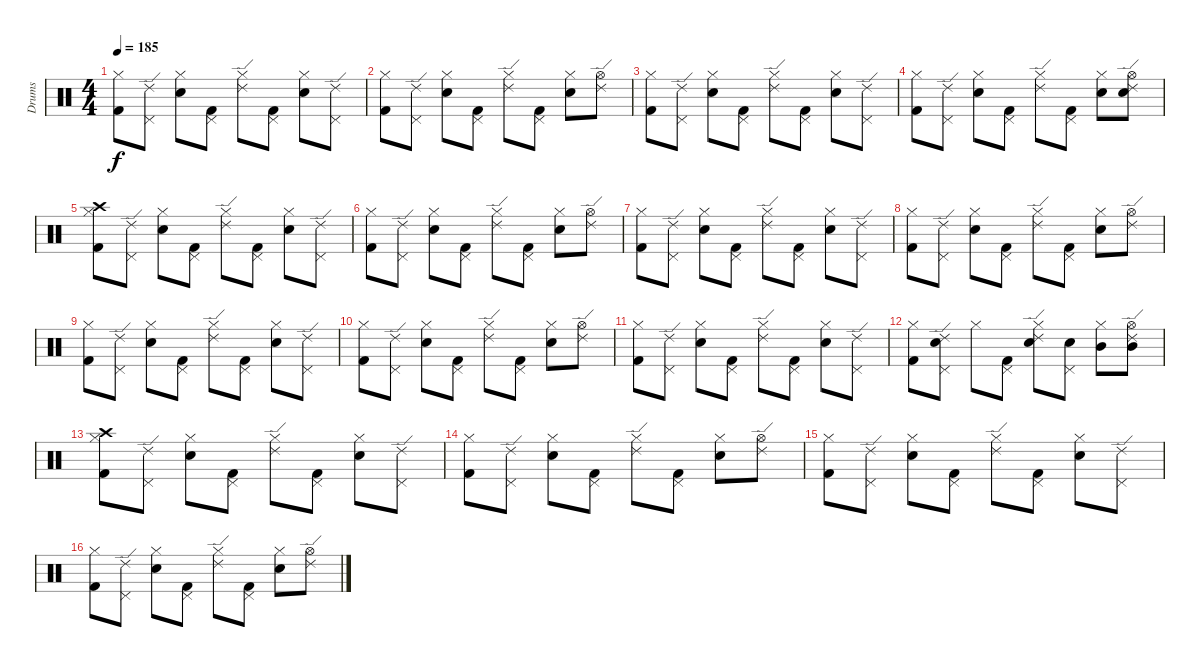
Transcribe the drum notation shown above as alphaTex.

\track ("Drums" "Drums") {instrument percussion}
\staff {score}
\articulation defaults
\ts (4 4)
\tempo 185
\clef neutral
\ks c
("Kick (hit) 2" "Hi-Hat (closed)").8{dy f} ("Ride (edge) 2" "Pedal Hi-Hat (hit)").8 ("Electric Snare (hit)" "Hi-Hat (closed)").8 ("Kick (hit) 2" "Pedal Hi-Hat (hit)").8 ("Ride (edge) 2" "Hi-Hat (closed)").8 ("Kick (hit) 2" "Pedal Hi-Hat (hit)").8 ("Electric Snare (hit)" "Hi-Hat (closed)").8 ("Ride (edge) 2" "Pedal Hi-Hat (hit)").8 |
("Kick (hit) 2" "Hi-Hat (closed)").8 ("Ride (edge) 2" "Pedal Hi-Hat (hit)").8 ("Electric Snare (hit)" "Hi-Hat (closed)").8 ("Kick (hit) 2" "Pedal Hi-Hat (hit)").8 ("Ride (edge) 2" "Hi-Hat (closed)").8 ("Kick (hit) 2" "Pedal Hi-Hat (hit)").8 ("Electric Snare (hit)" "Hi-Hat (closed)").8 ("Ride (edge) 2" "Hi-Hat (open)").8 |
("Kick (hit) 2" "Hi-Hat (closed)").8 ("Ride (edge) 2" "Pedal Hi-Hat (hit)").8 ("Electric Snare (hit)" "Hi-Hat (closed)").8 ("Kick (hit) 2" "Pedal Hi-Hat (hit)").8 ("Ride (edge) 2" "Hi-Hat (closed)").8 ("Kick (hit) 2" "Pedal Hi-Hat (hit)").8 ("Electric Snare (hit)" "Hi-Hat (closed)").8 ("Ride (edge) 2" "Pedal Hi-Hat (hit)").8 |
("Kick (hit) 2" "Hi-Hat (closed)").8 ("Ride (edge) 2" "Pedal Hi-Hat (hit)").8 ("Electric Snare (hit)" "Hi-Hat (closed)").8 ("Kick (hit) 2" "Pedal Hi-Hat (hit)").8 ("Ride (edge) 2" "Hi-Hat (closed)").8 ("Kick (hit) 2" "Pedal Hi-Hat (hit)").8 ("Electric Snare (hit)" "Hi-Hat (closed)").8 ("Electric Snare (hit)" "Ride (edge) 2" "Hi-Hat (open)").8 |
("Kick (hit) 2" "Crash high (hit)" "Hi-Hat (closed)").8 ("Ride (edge) 2" "Pedal Hi-Hat (hit)").8 ("Electric Snare (hit)" "Hi-Hat (closed)").8 ("Kick (hit) 2" "Pedal Hi-Hat (hit)").8 ("Ride (edge) 2" "Hi-Hat (closed)").8 ("Kick (hit) 2" "Pedal Hi-Hat (hit)").8 ("Electric Snare (hit)" "Hi-Hat (closed)").8 ("Ride (edge) 2" "Pedal Hi-Hat (hit)").8 |
("Kick (hit) 2" "Hi-Hat (closed)").8 ("Ride (edge) 2" "Pedal Hi-Hat (hit)").8 ("Electric Snare (hit)" "Hi-Hat (closed)").8 ("Kick (hit) 2" "Pedal Hi-Hat (hit)").8 ("Ride (edge) 2" "Hi-Hat (closed)").8 ("Kick (hit) 2" "Pedal Hi-Hat (hit)").8 ("Electric Snare (hit)" "Hi-Hat (closed)").8 ("Ride (edge) 2" "Hi-Hat (open)").8 |
("Kick (hit) 2" "Hi-Hat (closed)").8 ("Ride (edge) 2" "Pedal Hi-Hat (hit)").8 ("Electric Snare (hit)" "Hi-Hat (closed)").8 ("Kick (hit) 2" "Pedal Hi-Hat (hit)").8 ("Ride (edge) 2" "Hi-Hat (closed)").8 ("Kick (hit) 2" "Pedal Hi-Hat (hit)").8 ("Electric Snare (hit)" "Hi-Hat (closed)").8 ("Ride (edge) 2" "Pedal Hi-Hat (hit)").8 |
("Kick (hit) 2" "Hi-Hat (closed)").8 ("Ride (edge) 2" "Pedal Hi-Hat (hit)").8 ("Electric Snare (hit)" "Hi-Hat (closed)").8 ("Kick (hit) 2" "Pedal Hi-Hat (hit)").8 ("Ride (edge) 2" "Hi-Hat (closed)").8 ("Kick (hit) 2" "Pedal Hi-Hat (hit)").8 ("Electric Snare (hit)" "Hi-Hat (closed)").8 ("Ride (edge) 2" "Hi-Hat (open)").8 |
("Kick (hit) 2" "Hi-Hat (closed)").8 ("Ride (edge) 2" "Pedal Hi-Hat (hit)").8 ("Electric Snare (hit)" "Hi-Hat (closed)").8 ("Kick (hit) 2" "Pedal Hi-Hat (hit)").8 ("Ride (edge) 2" "Hi-Hat (closed)").8 ("Kick (hit) 2" "Pedal Hi-Hat (hit)").8 ("Electric Snare (hit)" "Hi-Hat (closed)").8 ("Ride (edge) 2" "Pedal Hi-Hat (hit)").8 |
("Kick (hit) 2" "Hi-Hat (closed)").8 ("Ride (edge) 2" "Pedal Hi-Hat (hit)").8 ("Electric Snare (hit)" "Hi-Hat (closed)").8 ("Kick (hit) 2" "Pedal Hi-Hat (hit)").8 ("Ride (edge) 2" "Hi-Hat (closed)").8 ("Kick (hit) 2" "Pedal Hi-Hat (hit)").8 ("Electric Snare (hit)" "Hi-Hat (closed)").8 ("Ride (edge) 2" "Hi-Hat (open)").8 |
("Kick (hit) 2" "Hi-Hat (closed)").8 ("Ride (edge) 2" "Pedal Hi-Hat (hit)").8 ("Electric Snare (hit)" "Hi-Hat (closed)").8 ("Kick (hit) 2" "Pedal Hi-Hat (hit)").8 ("Ride (edge) 2" "Hi-Hat (closed)").8 ("Kick (hit) 2" "Pedal Hi-Hat (hit)").8 ("Electric Snare (hit)" "Hi-Hat (closed)").8 ("Ride (edge) 2" "Pedal Hi-Hat (hit)").8 |
("Kick (hit) 2" "Hi-Hat (closed)").8 ("Electric Snare (hit)" "Ride (edge) 2" "Pedal Hi-Hat (hit)").8 "Hi-Hat (closed)".8 ("Kick (hit) 2" "Pedal Hi-Hat (hit)").8 ("Electric Snare (hit)" "Ride (edge) 2" "Hi-Hat (closed)").8 ("Electric Snare (hit)" "Pedal Hi-Hat (hit)").8 ("Mid Tom (hit)" "Hi-Hat (closed)").8 ("Mid Tom (hit)" "Ride (edge) 2" "Hi-Hat (open)").8 |
("Kick (hit) 2" "Crash high (hit)" "Hi-Hat (closed)").8 ("Ride (edge) 2" "Pedal Hi-Hat (hit)").8 ("Electric Snare (hit)" "Hi-Hat (closed)").8 ("Kick (hit) 2" "Pedal Hi-Hat (hit)").8 ("Ride (edge) 2" "Hi-Hat (closed)").8 ("Kick (hit) 2" "Pedal Hi-Hat (hit)").8 ("Electric Snare (hit)" "Hi-Hat (closed)").8 ("Ride (edge) 2" "Pedal Hi-Hat (hit)").8 |
("Kick (hit) 2" "Hi-Hat (closed)").8 ("Ride (edge) 2" "Pedal Hi-Hat (hit)").8 ("Electric Snare (hit)" "Hi-Hat (closed)").8 ("Kick (hit) 2" "Pedal Hi-Hat (hit)").8 ("Ride (edge) 2" "Hi-Hat (closed)").8 ("Kick (hit) 2" "Pedal Hi-Hat (hit)").8 ("Electric Snare (hit)" "Hi-Hat (closed)").8 ("Ride (edge) 2" "Hi-Hat (open)").8 |
("Kick (hit) 2" "Hi-Hat (closed)").8 ("Ride (edge) 2" "Pedal Hi-Hat (hit)").8 ("Electric Snare (hit)" "Hi-Hat (closed)").8 ("Kick (hit) 2" "Pedal Hi-Hat (hit)").8 ("Ride (edge) 2" "Hi-Hat (closed)").8 ("Kick (hit) 2" "Pedal Hi-Hat (hit)").8 ("Electric Snare (hit)" "Hi-Hat (closed)").8 ("Ride (edge) 2" "Pedal Hi-Hat (hit)").8 |
("Kick (hit) 2" "Hi-Hat (closed)").8 ("Ride (edge) 2" "Pedal Hi-Hat (hit)").8 ("Electric Snare (hit)" "Hi-Hat (closed)").8 ("Kick (hit) 2" "Pedal Hi-Hat (hit)").8 ("Ride (edge) 2" "Hi-Hat (closed)").8 ("Kick (hit) 2" "Pedal Hi-Hat (hit)").8 ("Electric Snare (hit)" "Hi-Hat (closed)").8 ("Ride (edge) 2" "Hi-Hat (open)").8
